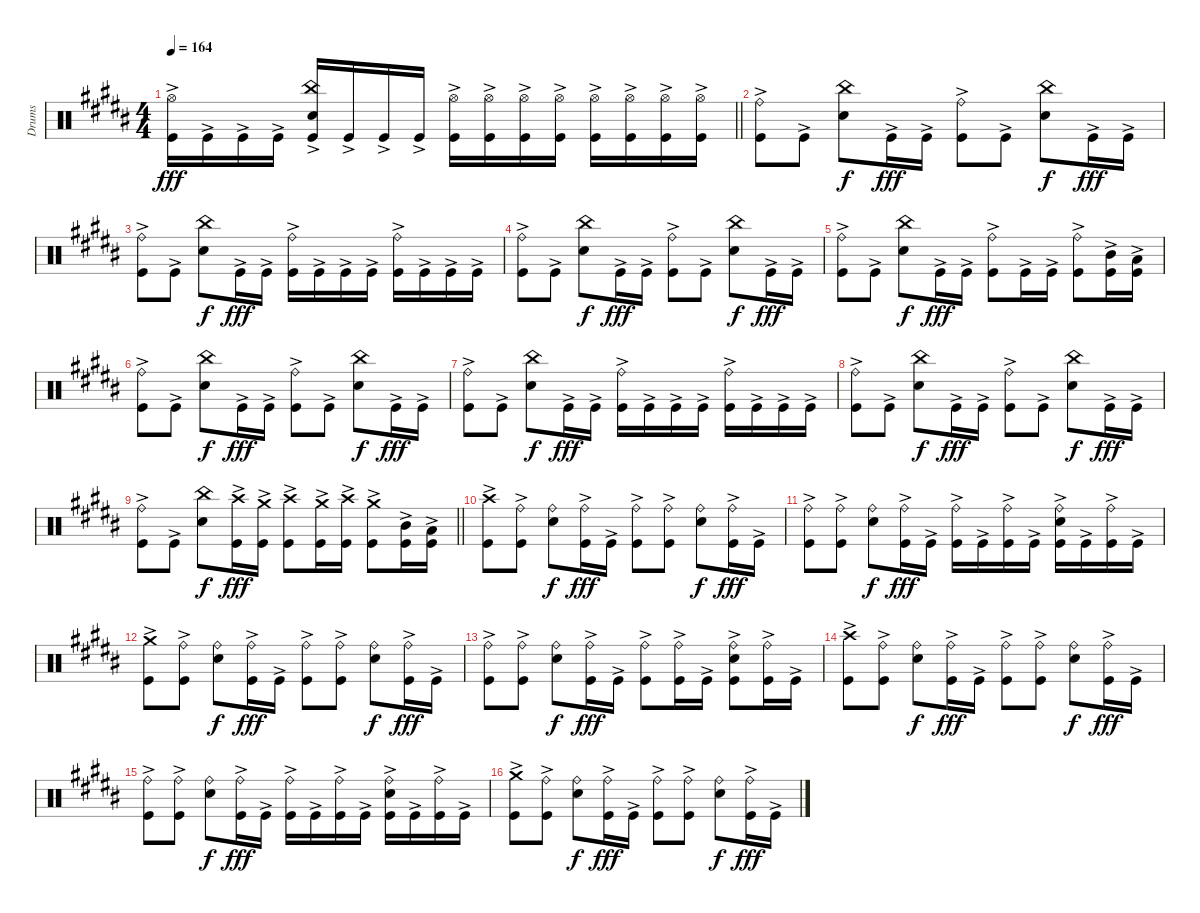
\track ("Drums" "Drums") {instrument percussion}
\staff {score}
\articulation defaults
\ts (4 4)
\tempo 164
\clef neutral
\barLineRight lightlight
\ks g#minor
("Hi-Hat (open)" "Kick (hit)"{ac}).16{dy fff} "Kick (hit)"{ac}.16 "Kick (hit)"{ac}.16 "Kick (hit)"{ac}.16 ("China (hit)" "Snare (hit) 2" "Kick (hit)"{ac}).16 "Kick (hit)"{ac}.16 "Kick (hit)"{ac}.16 "Kick (hit)"{ac}.16 ("Hi-Hat (open)" "Kick (hit)"{ac}).16 ("Hi-Hat (open)" "Kick (hit)"{ac}).16 ("Hi-Hat (open)" "Kick (hit)"{ac}).16 ("Hi-Hat (open)" "Kick (hit)"{ac}).16 ("Hi-Hat (open)" "Kick (hit)"{ac}).16 ("Hi-Hat (open)" "Kick (hit)"{ac}).16 ("Hi-Hat (open)" "Kick (hit)"{ac}).16 ("Hi-Hat (open)" "Kick (hit)"{ac}).16 |
("Ride (bell)" "Kick (hit)"{ac}).8 "Kick (hit)"{ac}.8 ("China (hit)" "Snare (hit) 2").8{dy f} "Kick (hit)"{ac}.16{dy fff} "Kick (hit)"{ac}.16 ("Ride (bell)" "Kick (hit)"{ac}).8 "Kick (hit)"{ac}.8 ("China (hit)" "Snare (hit) 2").8{dy f} "Kick (hit)"{ac}.16{dy fff} "Kick (hit)"{ac}.16 |
("Ride (bell)" "Kick (hit)"{ac}).8 "Kick (hit)"{ac}.8 ("China (hit)" "Snare (hit) 2").8{dy f} "Kick (hit)"{ac}.16{dy fff} "Kick (hit)"{ac}.16 ("Ride (bell)" "Kick (hit)"{ac}).16 "Kick (hit)"{ac}.16 "Kick (hit)"{ac}.16 "Kick (hit)"{ac}.16 ("Ride (bell)" "Kick (hit)"{ac}).16 "Kick (hit)"{ac}.16 "Kick (hit)"{ac}.16 "Kick (hit)"{ac}.16 |
("Ride (bell)" "Kick (hit)"{ac}).8 "Kick (hit)"{ac}.8 ("China (hit)" "Snare (hit) 2").8{dy f} "Kick (hit)"{ac}.16{dy fff} "Kick (hit)"{ac}.16 ("Ride (bell)" "Kick (hit)"{ac}).8 "Kick (hit)"{ac}.8 ("China (hit)" "Snare (hit) 2").8{dy f} "Kick (hit)"{ac}.16{dy fff} "Kick (hit)"{ac}.16 |
("Ride (bell)" "Kick (hit)"{ac}).8 "Kick (hit)"{ac}.8 ("China (hit)" "Snare (hit) 2").8{dy f} "Kick (hit)"{ac}.16{dy fff} "Kick (hit)"{ac}.16 ("Ride (bell)" "Kick (hit)"{ac}).8 "Kick (hit)"{ac}.16 "Kick (hit)"{ac}.16 ("Ride (bell)" "Kick (hit)"{ac}).8 ("Mid Tom (hit)"{ac} "Kick (hit)"{ac}).16 ("Low Tom (hit)"{ac} "Kick (hit)"{ac}).16 |
("Ride (bell)" "Kick (hit)"{ac}).8 "Kick (hit)"{ac}.8 ("China (hit)" "Snare (hit) 2").8{dy f} "Kick (hit)"{ac}.16{dy fff} "Kick (hit)"{ac}.16 ("Ride (bell)" "Kick (hit)"{ac}).8 "Kick (hit)"{ac}.8 ("China (hit)" "Snare (hit) 2").8{dy f} "Kick (hit)"{ac}.16{dy fff} "Kick (hit)"{ac}.16 |
("Ride (bell)" "Kick (hit)"{ac}).8 "Kick (hit)"{ac}.8 ("China (hit)" "Snare (hit) 2").8{dy f} "Kick (hit)"{ac}.16{dy fff} "Kick (hit)"{ac}.16 ("Ride (bell)" "Kick (hit)"{ac}).16 "Kick (hit)"{ac}.16 "Kick (hit)"{ac}.16 "Kick (hit)"{ac}.16 ("Ride (bell)" "Kick (hit)"{ac}).16 "Kick (hit)"{ac}.16 "Kick (hit)"{ac}.16 "Kick (hit)"{ac}.16 |
("Ride (bell)" "Kick (hit)"{ac}).8 "Kick (hit)"{ac}.8 ("China (hit)" "Snare (hit) 2").8{dy f} "Kick (hit)"{ac}.16{dy fff} "Kick (hit)"{ac}.16 ("Ride (bell)" "Kick (hit)"{ac}).8 "Kick (hit)"{ac}.8 ("China (hit)" "Snare (hit) 2").8{dy f} "Kick (hit)"{ac}.16{dy fff} "Kick (hit)"{ac}.16 |
\barLineRight lightlight
("Ride (bell)" "Kick (hit)"{ac}).8 "Kick (hit)"{ac}.8 ("China (hit)" "Snare (hit) 2").8{dy f} ("Crash high (hit)" "Kick (hit)"{ac}).16{dy fff} ("Crash medium (hit)" "Kick (hit)"{ac}).16 ("Crash high (hit)" "Kick (hit)"{ac}).8 ("Crash medium (hit)" "Kick (hit)"{ac}).16 ("Crash high (hit)" "Kick (hit)"{ac}).16 ("Crash medium (hit)" "Kick (hit)"{ac}).8 ("Mid Tom (hit)"{ac} "Kick (hit)"{ac}).16 ("Low Tom (hit)"{ac} "Kick (hit)"{ac}).16 |
("Crash high (hit)" "Kick (hit)"{ac}).8 ("Ride (bell)" "Kick (hit)"{ac}).8 ("Ride (bell)" "Snare (hit) 2").8{dy f} ("Ride (bell)" "Kick (hit)"{ac}).16{dy fff} "Kick (hit)"{ac}.16 ("Ride (bell)" "Kick (hit)"{ac}).8 ("Ride (bell)" "Kick (hit)"{ac}).8 ("Ride (bell)" "Snare (hit) 2").8{dy f} ("Ride (bell)" "Kick (hit)"{ac}).16{dy fff} "Kick (hit)"{ac}.16 |
("Ride (bell)" "Kick (hit)"{ac}).8 ("Ride (bell)" "Kick (hit)"{ac}).8 ("Ride (bell)" "Snare (hit) 2").8{dy f} ("Ride (bell)" "Kick (hit)"{ac}).16{dy fff} "Kick (hit)"{ac}.16 ("Ride (bell)" "Kick (hit)"{ac}).16 "Kick (hit)"{ac}.16 ("Ride (bell)" "Kick (hit)"{ac}).16 "Kick (hit)"{ac}.16 ("Ride (bell)" "Snare (hit) 2" "Kick (hit)"{ac}).16 "Kick (hit)"{ac}.16 ("Ride (bell)" "Kick (hit)"{ac}).16 "Kick (hit)"{ac}.16 |
("Crash medium (hit)" "Kick (hit)"{ac}).8 ("Ride (bell)" "Kick (hit)"{ac}).8 ("Ride (bell)" "Snare (hit) 2").8{dy f} ("Ride (bell)" "Kick (hit)"{ac}).16{dy fff} "Kick (hit)"{ac}.16 ("Ride (bell)" "Kick (hit)"{ac}).8 ("Ride (bell)" "Kick (hit)"{ac}).8 ("Ride (bell)" "Snare (hit) 2").8{dy f} ("Ride (bell)" "Kick (hit)"{ac}).16{dy fff} "Kick (hit)"{ac}.16 |
("Ride (bell)" "Kick (hit)"{ac}).8 ("Ride (bell)" "Kick (hit)"{ac}).8 ("Ride (bell)" "Snare (hit) 2").8{dy f} ("Ride (bell)" "Kick (hit)"{ac}).16{dy fff} "Kick (hit)"{ac}.16 ("Ride (bell)" "Kick (hit)"{ac}).8 ("Ride (bell)" "Kick (hit)"{ac}).16 "Kick (hit)"{ac}.16 ("Ride (bell)" "Snare (hit) 2" "Kick (hit)"{ac}).8 ("Ride (bell)" "Kick (hit)"{ac}).16 "Kick (hit)"{ac}.16 |
("Crash high (hit)" "Kick (hit)"{ac}).8 ("Ride (bell)" "Kick (hit)"{ac}).8 ("Ride (bell)" "Snare (hit) 2").8{dy f} ("Ride (bell)" "Kick (hit)"{ac}).16{dy fff} "Kick (hit)"{ac}.16 ("Ride (bell)" "Kick (hit)"{ac}).8 ("Ride (bell)" "Kick (hit)"{ac}).8 ("Ride (bell)" "Snare (hit) 2").8{dy f} ("Ride (bell)" "Kick (hit)"{ac}).16{dy fff} "Kick (hit)"{ac}.16 |
("Ride (bell)" "Kick (hit)"{ac}).8 ("Ride (bell)" "Kick (hit)"{ac}).8 ("Ride (bell)" "Snare (hit) 2").8{dy f} ("Ride (bell)" "Kick (hit)"{ac}).16{dy fff} "Kick (hit)"{ac}.16 ("Ride (bell)" "Kick (hit)"{ac}).16 "Kick (hit)"{ac}.16 ("Ride (bell)" "Kick (hit)"{ac}).16 "Kick (hit)"{ac}.16 ("Ride (bell)" "Snare (hit) 2" "Kick (hit)"{ac}).16 "Kick (hit)"{ac}.16 ("Ride (bell)" "Kick (hit)"{ac}).16 "Kick (hit)"{ac}.16 |
("Crash medium (hit)" "Kick (hit)"{ac}).8 ("Ride (bell)" "Kick (hit)"{ac}).8 ("Ride (bell)" "Snare (hit) 2").8{dy f} ("Ride (bell)" "Kick (hit)"{ac}).16{dy fff} "Kick (hit)"{ac}.16 ("Ride (bell)" "Kick (hit)"{ac}).8 ("Ride (bell)" "Kick (hit)"{ac}).8 ("Ride (bell)" "Snare (hit) 2").8{dy f} ("Ride (bell)" "Kick (hit)"{ac}).16{dy fff} "Kick (hit)"{ac}.16
